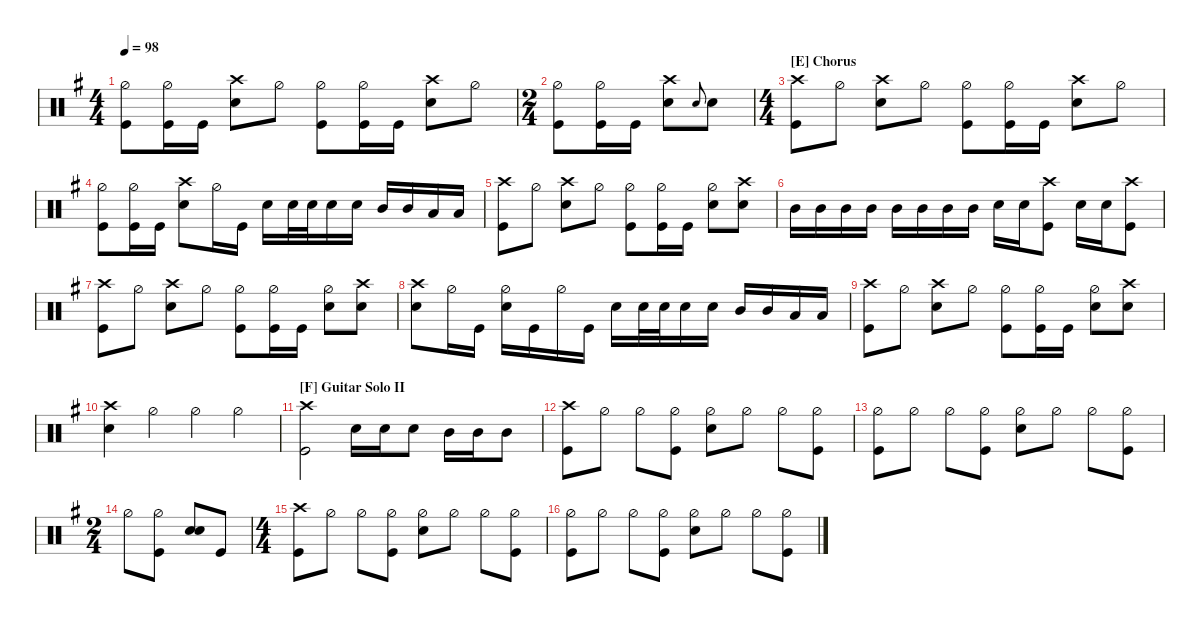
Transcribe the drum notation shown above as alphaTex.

\defaultSystemsLayout 4
\hideDynamics
\bracketExtendMode nobrackets
\track ("Drums" " ") {instrument percussion}
\staff
\articulation defaults
\ts (4 4)
\tempo 98
\clef neutral
\ks eminor
("Hi-Hat (half)"{acc forcenatural} "Kick (hit)"{acc forcenatural}).8{dy f} ("Hi-Hat (half)"{acc forcenatural} "Kick (hit)"{acc forcenatural}).16 "Kick (hit)"{acc forcenatural}.16 ("Snare (hit) 2"{acc forcenatural} "Crash high (hit)"{acc forcenatural}).8 "Hi-Hat (half)"{acc forcenatural}.8 ("Hi-Hat (half)"{acc forcenatural} "Kick (hit)"{acc forcenatural}).8 ("Hi-Hat (half)"{acc forcenatural} "Kick (hit)"{acc forcenatural}).16 "Kick (hit)"{acc forcenatural}.16 ("Snare (hit) 2"{acc forcenatural} "Crash high (hit)"{acc forcenatural}).8 "Hi-Hat (half)"{acc forcenatural}.8 |
\ts (2 4)
\beaming (8 2 2)
("Hi-Hat (half)"{acc forcenatural} "Kick (hit)"{acc forcenatural}).8 ("Hi-Hat (half)"{acc forcenatural} "Kick (hit)"{acc forcenatural}).16 "Kick (hit)"{acc forcenatural}.16 ("Snare (hit) 2"{acc forcenatural} "Crash high (hit)"{acc forcenatural}).8 "Snare (hit) 2"{acc forcenatural}.8{gr onbeat} "Snare (hit) 2"{acc forcenatural}.8 |
\ts (4 4)
\beaming (8 2 2 2 2)
\section ("E" "Chorus")
("Kick (hit)"{acc forcenatural} "Crash high (hit)"{acc forcenatural}).8 "Hi-Hat (half)"{acc forcenatural}.8 ("Snare (hit) 2"{acc forcenatural} "Crash high (hit)"{acc forcenatural}).8 "Hi-Hat (half)"{acc forcenatural}.8 ("Hi-Hat (half)"{acc forcenatural} "Kick (hit)"{acc forcenatural}).8 ("Hi-Hat (half)"{acc forcenatural} "Kick (hit)"{acc forcenatural}).16 "Kick (hit)"{acc forcenatural}.16 ("Snare (hit) 2"{acc forcenatural} "Crash high (hit)"{acc forcenatural}).8 "Hi-Hat (half)"{acc forcenatural}.8 |
("Hi-Hat (half)"{acc forcenatural} "Kick (hit)"{acc forcenatural}).8 ("Hi-Hat (half)"{acc forcenatural} "Kick (hit)"{acc forcenatural}).16 "Kick (hit)"{acc forcenatural}.16 ("Snare (hit) 2"{acc forcenatural} "Crash high (hit)"{acc forcenatural}).8 "Hi-Hat (half)"{acc forcenatural}.16 "Kick (hit)"{acc forcenatural}.16 "Snare (hit) 2"{acc forcenatural}.16 "Snare (hit) 2"{acc forcenatural}.32 "Snare (hit) 2"{acc forcenatural}.32 "Snare (hit) 2"{acc forcenatural}.16 "Snare (hit) 2"{acc forcenatural}.16 "Mid Tom (hit)"{acc forcenatural}.16{dy fff} "Mid Tom (hit)"{acc forcenatural}.16 "Low Tom (hit)"{acc forcenatural}.16 "Low Tom (hit)"{acc forcenatural}.16 |
("Kick (hit)"{acc forcenatural} "Crash high (hit)"{acc forcenatural}).8{dy f} "Hi-Hat (half)"{acc forcenatural}.8 ("Snare (hit) 2"{acc forcenatural} "Crash high (hit)"{acc forcenatural}).8 "Hi-Hat (half)"{acc forcenatural}.8 ("Hi-Hat (half)"{acc forcenatural} "Kick (hit)"{acc forcenatural}).8 ("Hi-Hat (half)"{acc forcenatural} "Kick (hit)"{acc forcenatural}).16 "Kick (hit)"{acc forcenatural}.16 ("Snare (hit) 2"{acc forcenatural} "Hi-Hat (half)"{acc forcenatural}).8 ("Snare (hit) 2"{acc forcenatural} "Crash high (hit)"{acc forcenatural}).8 |
"Mid Tom (hit)"{acc forcenatural}.16{dy fff} "Mid Tom (hit)"{acc forcenatural}.16 "Mid Tom (hit)"{acc forcenatural}.16 "Mid Tom (hit)"{acc forcenatural}.16 "Mid Tom (hit)"{acc forcenatural}.16 "Mid Tom (hit)"{acc forcenatural}.16 "Mid Tom (hit)"{acc forcenatural}.16 "Mid Tom (hit)"{acc forcenatural}.16 "Snare (hit) 2"{acc forcenatural}.16{dy f} "Snare (hit) 2"{acc forcenatural}.16 ("Kick (hit)"{acc forcenatural} "Crash high (hit)"{acc forcenatural}).8 "Snare (hit) 2"{acc forcenatural}.16 "Snare (hit) 2"{acc forcenatural}.16 ("Kick (hit)"{acc forcenatural} "Crash high (hit)"{acc forcenatural}).8 |
("Kick (hit)"{acc forcenatural} "Crash high (hit)"{acc forcenatural}).8 "Hi-Hat (half)"{acc forcenatural}.8 ("Snare (hit) 2"{acc forcenatural} "Crash high (hit)"{acc forcenatural}).8 "Hi-Hat (half)"{acc forcenatural}.8 ("Hi-Hat (half)"{acc forcenatural} "Kick (hit)"{acc forcenatural}).8 ("Hi-Hat (half)"{acc forcenatural} "Kick (hit)"{acc forcenatural}).16 "Kick (hit)"{acc forcenatural}.16 ("Snare (hit) 2"{acc forcenatural} "Hi-Hat (half)"{acc forcenatural}).8 ("Snare (hit) 2"{acc forcenatural} "Crash high (hit)"{acc forcenatural}).8 |
("Snare (hit) 2"{acc forcenatural} "Crash high (hit)"{acc forcenatural}).8 "Hi-Hat (half)"{acc forcenatural}.16 "Kick (hit)"{acc forcenatural}.16 ("Snare (hit) 2"{acc forcenatural} "Hi-Hat (half)"{acc forcenatural}).16 "Kick (hit)"{acc forcenatural}.16 "Hi-Hat (half)"{acc forcenatural}.16 "Kick (hit)"{acc forcenatural}.16 "Snare (hit) 2"{acc forcenatural}.16 "Snare (hit) 2"{acc forcenatural}.32 "Snare (hit) 2"{acc forcenatural}.32 "Snare (hit) 2"{acc forcenatural}.16 "Snare (hit) 2"{acc forcenatural}.16 "Mid Tom (hit)"{acc forcenatural}.16{dy fff} "Mid Tom (hit)"{acc forcenatural}.16 "Low Tom (hit)"{acc forcenatural}.16 "Low Tom (hit)"{acc forcenatural}.16 |
("Kick (hit)"{acc forcenatural} "Crash high (hit)"{acc forcenatural}).8{dy f} "Hi-Hat (half)"{acc forcenatural}.8 ("Snare (hit) 2"{acc forcenatural} "Crash high (hit)"{acc forcenatural}).8 "Hi-Hat (half)"{acc forcenatural}.8 ("Hi-Hat (half)"{acc forcenatural} "Kick (hit)"{acc forcenatural}).8 ("Hi-Hat (half)"{acc forcenatural} "Kick (hit)"{acc forcenatural}).16 "Kick (hit)"{acc forcenatural}.16 ("Snare (hit) 2"{acc forcenatural} "Hi-Hat (half)"{acc forcenatural}).8 ("Snare (hit) 2"{acc forcenatural} "Crash high (hit)"{acc forcenatural}).8 |
("Snare (hit) 2"{acc forcenatural} "Crash high (hit)"{acc forcenatural}).4 "Hi-Hat (half)"{acc forcenatural}.4 "Hi-Hat (half)"{acc forcenatural}.4 "Hi-Hat (half)"{acc forcenatural}.4 |
\section ("F" "Guitar Solo II")
("Kick (hit)"{acc forcenatural} "Crash high (hit)"{acc forcenatural}).2 "Snare (hit) 2"{acc forcenatural}.16 "Snare (hit) 2"{acc forcenatural}.16 "Snare (hit) 2"{acc forcenatural}.8 "Mid Tom (hit)"{acc forcenatural}.16{dy fff} "Mid Tom (hit)"{acc forcenatural}.16 "Mid Tom (hit)"{acc forcenatural}.8 |
("Kick (hit)"{acc forcenatural} "Crash high (hit)"{acc forcenatural}).8{dy f} "Hi-Hat (half)"{acc forcenatural}.8 "Hi-Hat (half)"{acc forcenatural}.8 ("Hi-Hat (half)"{acc forcenatural} "Kick (hit)"{acc forcenatural}).8 ("Hi-Hat (half)"{acc forcenatural} "Snare (hit) 2"{acc forcenatural}).8 "Hi-Hat (half)"{acc forcenatural}.8 "Hi-Hat (half)"{acc forcenatural}.8 ("Hi-Hat (half)"{acc forcenatural} "Kick (hit)"{acc forcenatural}).8 |
("Hi-Hat (half)"{acc forcenatural} "Kick (hit)"{acc forcenatural}).8 "Hi-Hat (half)"{acc forcenatural}.8 "Hi-Hat (half)"{acc forcenatural}.8 ("Hi-Hat (half)"{acc forcenatural} "Kick (hit)"{acc forcenatural}).8 ("Hi-Hat (half)"{acc forcenatural} "Snare (hit) 2"{acc forcenatural}).8 "Hi-Hat (half)"{acc forcenatural}.8 "Hi-Hat (half)"{acc forcenatural}.8 ("Hi-Hat (half)"{acc forcenatural} "Kick (hit)"{acc forcenatural}).8 |
\ts (2 4)
\beaming (8 2 2)
"Hi-Hat (half)"{acc forcenatural}.8 ("Hi-Hat (half)"{acc forcenatural} "Kick (hit)"{acc forcenatural}).8 ("Snare (hit) 2"{acc forcenatural} "Snare (hit) 2"{acc forcenatural}).8 "Kick (hit)"{acc forcenatural}.8 |
\ts (4 4)
\beaming (8 2 2 2 2)
("Kick (hit)"{acc forcenatural} "Crash high (hit)"{acc forcenatural}).8 "Hi-Hat (half)"{acc forcenatural}.8 "Hi-Hat (half)"{acc forcenatural}.8 ("Hi-Hat (half)"{acc forcenatural} "Kick (hit)"{acc forcenatural}).8 ("Hi-Hat (half)"{acc forcenatural} "Snare (hit) 2"{acc forcenatural}).8 "Hi-Hat (half)"{acc forcenatural}.8 "Hi-Hat (half)"{acc forcenatural}.8 ("Hi-Hat (half)"{acc forcenatural} "Kick (hit)"{acc forcenatural}).8 |
("Hi-Hat (half)"{acc forcenatural} "Kick (hit)"{acc forcenatural}).8 "Hi-Hat (half)"{acc forcenatural}.8 "Hi-Hat (half)"{acc forcenatural}.8 ("Hi-Hat (half)"{acc forcenatural} "Kick (hit)"{acc forcenatural}).8 ("Hi-Hat (half)"{acc forcenatural} "Snare (hit) 2"{acc forcenatural}).8 "Hi-Hat (half)"{acc forcenatural}.8 "Hi-Hat (half)"{acc forcenatural}.8 ("Hi-Hat (half)"{acc forcenatural} "Kick (hit)"{acc forcenatural}).8
